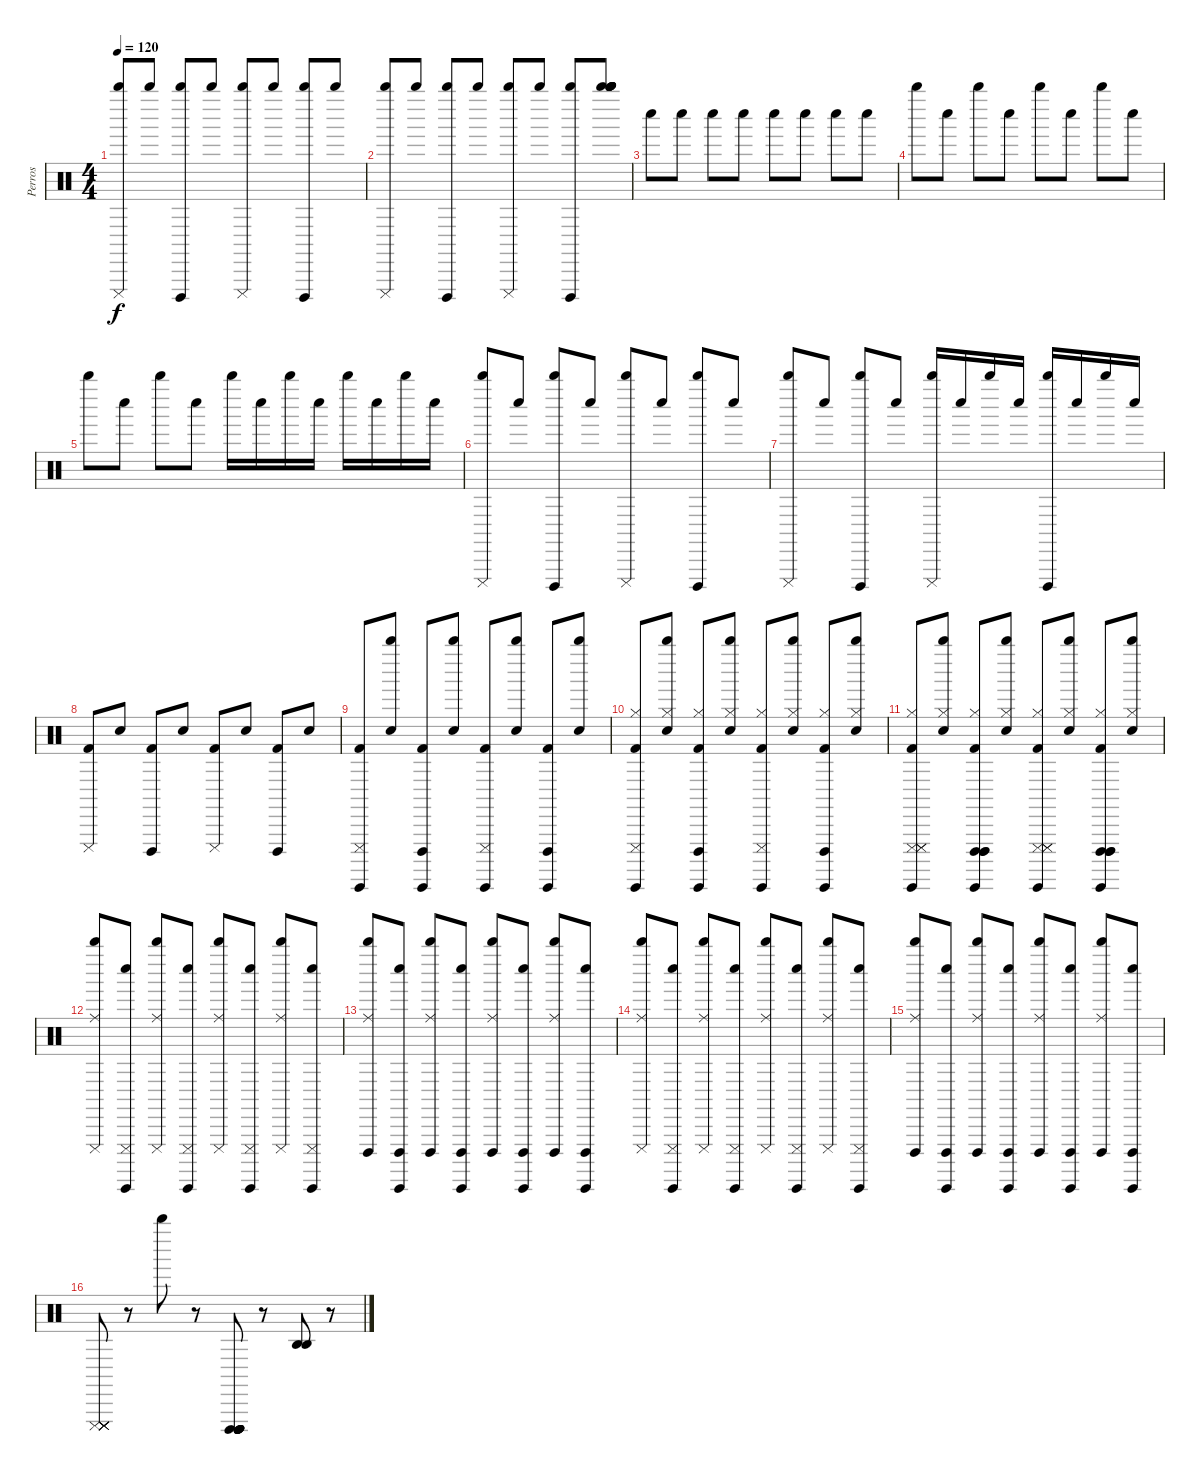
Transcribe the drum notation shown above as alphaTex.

\track ("Perros" "Perros") {instrument percussion}
\staff {score}
\articulation defaults
\ts (4 4)
\tempo 120
\clef neutral
\ks c
("Whistle high (hit)" "Cuica (mute)").8{dy f} "Whistle high (hit)".8 ("Whistle high (hit)" "Cuica (open)").8 "Whistle high (hit)".8 ("Whistle high (hit)" "Cuica (mute)").8 "Whistle high (hit)".8 ("Whistle high (hit)" "Cuica (open)").8 "Whistle high (hit)".8 |
("Whistle high (hit)" "Cuica (mute)").8 "Whistle high (hit)".8 ("Whistle high (hit)" "Cuica (open)").8 "Whistle high (hit)".8 ("Whistle high (hit)" "Cuica (mute)").8 "Whistle high (hit)".8 ("Whistle high (hit)" "Cuica (open)").8 ("Whistle high (hit)" "Whistle high (hit)" "Whistle high (hit)" "Whistle high (hit)" "Whistle high (hit)" "Whistle high (hit)").8 |
"Whistle low (hit)".8 "Whistle low (hit)".8 "Whistle low (hit)".8 "Whistle low (hit)".8 "Whistle low (hit)".8 "Whistle low (hit)".8 "Whistle low (hit)".8 "Whistle low (hit)".8 |
"Whistle high (hit)".8 "Whistle low (hit)".8 "Whistle high (hit)".8 "Whistle low (hit)".8 "Whistle high (hit)".8 "Whistle low (hit)".8 "Whistle high (hit)".8 "Whistle low (hit)".8 |
"Whistle high (hit)".8 "Whistle low (hit)".8 "Whistle high (hit)".8 "Whistle low (hit)".8 "Whistle high (hit)".16 "Whistle low (hit)".16 "Whistle high (hit)".16 "Whistle low (hit)".16 "Whistle high (hit)".16 "Whistle low (hit)".16 "Whistle high (hit)".16 "Whistle low (hit)".16 |
("Cuica (mute)" "Whistle high (hit)").8 "Whistle low (hit)".8 ("Cuica (open)" "Whistle high (hit)").8 "Whistle low (hit)".8 ("Cuica (mute)" "Whistle high (hit)").8 "Whistle low (hit)".8 ("Cuica (open)" "Whistle high (hit)").8 "Whistle low (hit)".8 |
("Cuica (mute)" "Whistle high (hit)").8 "Whistle low (hit)".8 ("Cuica (open)" "Whistle high (hit)").8 "Whistle low (hit)".8 ("Cuica (mute)" "Whistle high (hit)").16 "Whistle low (hit)".16 "Whistle high (hit)".16 "Whistle low (hit)".16 ("Cuica (open)" "Whistle high (hit)").16 "Whistle low (hit)".16 "Whistle high (hit)".16 "Whistle low (hit)".16 |
("Cuica (mute)" "Kick (hit) 2").8 "Snare (hit) 2".8 ("Cuica (open)" "Kick (hit) 2").8 "Snare (hit) 2".8 ("Cuica (mute)" "Kick (hit) 2").8 "Snare (hit) 2".8 ("Cuica (open)" "Kick (hit) 2").8 "Snare (hit) 2".8 |
("Guiro (hit)" "Cuica (mute)" "Kick (hit) 2").8 ("Whistle high (hit)" "Snare (hit) 2").8 ("Guiro (hit)" "Cuica (open)" "Kick (hit) 2").8 ("Whistle high (hit)" "Snare (hit) 2").8 ("Guiro (hit)" "Cuica (mute)" "Kick (hit) 2").8 ("Whistle high (hit)" "Snare (hit) 2").8 ("Guiro (hit)" "Cuica (open)" "Kick (hit) 2").8 ("Whistle high (hit)" "Snare (hit) 2").8 |
("Hi-Hat (closed)" "Guiro (hit)" "Cuica (mute)" "Kick (hit) 2").8 ("Hi-Hat (closed)" "Whistle high (hit)" "Snare (hit) 2").8 ("Hi-Hat (closed)" "Guiro (hit)" "Cuica (open)" "Kick (hit) 2").8 ("Hi-Hat (closed)" "Whistle high (hit)" "Snare (hit) 2").8 ("Hi-Hat (closed)" "Guiro (hit)" "Cuica (mute)" "Kick (hit) 2").8 ("Hi-Hat (closed)" "Whistle high (hit)" "Snare (hit) 2").8 ("Hi-Hat (closed)" "Guiro (hit)" "Cuica (open)" "Kick (hit) 2").8 ("Hi-Hat (closed)" "Whistle high (hit)" "Snare (hit) 2").8 |
("Hi-Hat (closed)" "Guiro (hit)" "Cuica (mute)" "Cuica (mute)" "Cuica (mute)" "Kick (hit) 2").8 ("Hi-Hat (closed)" "Whistle high (hit)" "Snare (hit) 2").8 ("Hi-Hat (closed)" "Guiro (hit)" "Cuica (open)" "Cuica (open)" "Cuica (open)" "Kick (hit) 2").8 ("Hi-Hat (closed)" "Whistle high (hit)" "Snare (hit) 2").8 ("Hi-Hat (closed)" "Guiro (hit)" "Cuica (mute)" "Cuica (mute)" "Cuica (mute)" "Kick (hit) 2").8 ("Hi-Hat (closed)" "Whistle high (hit)" "Snare (hit) 2").8 ("Hi-Hat (closed)" "Guiro (hit)" "Cuica (open)" "Cuica (open)" "Cuica (open)" "Kick (hit) 2").8 ("Hi-Hat (closed)" "Whistle high (hit)" "Snare (hit) 2").8 |
("Whistle high (hit)" "Ride (middle)" "Cuica (mute)").8 ("Whistle low (hit)" "Guiro (hit)" "Cuica (mute)").8 ("Whistle high (hit)" "Ride (middle)" "Cuica (mute)").8 ("Whistle low (hit)" "Guiro (hit)" "Cuica (mute)").8 ("Whistle high (hit)" "Ride (middle)" "Cuica (mute)").8 ("Whistle low (hit)" "Guiro (hit)" "Cuica (mute)").8 ("Whistle high (hit)" "Ride (middle)" "Cuica (mute)").8 ("Whistle low (hit)" "Guiro (hit)" "Cuica (mute)").8 |
("Whistle high (hit)" "Ride (middle)" "Cuica (open)").8 ("Whistle low (hit)" "Guiro (hit)" "Cuica (open)").8 ("Whistle high (hit)" "Ride (middle)" "Cuica (open)").8 ("Whistle low (hit)" "Guiro (hit)" "Cuica (open)").8 ("Whistle high (hit)" "Ride (middle)" "Cuica (open)").8 ("Whistle low (hit)" "Guiro (hit)" "Cuica (open)").8 ("Whistle high (hit)" "Ride (middle)" "Cuica (open)").8 ("Whistle low (hit)" "Guiro (hit)" "Cuica (open)").8 |
("Whistle high (hit)" "Ride (middle)" "Cuica (mute)").8 ("Whistle low (hit)" "Guiro (hit)" "Cuica (mute)").8 ("Whistle high (hit)" "Ride (middle)" "Cuica (mute)").8 ("Whistle low (hit)" "Guiro (hit)" "Cuica (mute)").8 ("Whistle high (hit)" "Ride (middle)" "Cuica (mute)").8 ("Whistle low (hit)" "Guiro (hit)" "Cuica (mute)").8 ("Whistle high (hit)" "Ride (middle)" "Cuica (mute)").8 ("Whistle low (hit)" "Guiro (hit)" "Cuica (mute)").8 |
("Whistle high (hit)" "Ride (middle)" "Cuica (open)").8 ("Whistle low (hit)" "Guiro (hit)" "Cuica (open)").8 ("Whistle high (hit)" "Ride (middle)" "Cuica (open)").8 ("Whistle low (hit)" "Guiro (hit)" "Cuica (open)").8 ("Whistle high (hit)" "Ride (middle)" "Cuica (open)").8 ("Whistle low (hit)" "Guiro (hit)" "Cuica (open)").8 ("Whistle high (hit)" "Ride (middle)" "Cuica (open)").8 ("Whistle low (hit)" "Guiro (hit)" "Cuica (open)").8 |
("Cuica (mute)" "Cuica (mute)" "Cuica (mute)" "Cuica (mute)" "Cuica (mute)" "Cuica (mute)").8 r.8 "Whistle high (hit)".8 r.8 ("Cuica (open)" "Cuica (open)" "Cuica (open)" "Cuica (open)" "Cuica (open)" "Cuica (open)").8 r.8 ("Agogo high (hit)" "Agogo high (hit)").8 r.8
